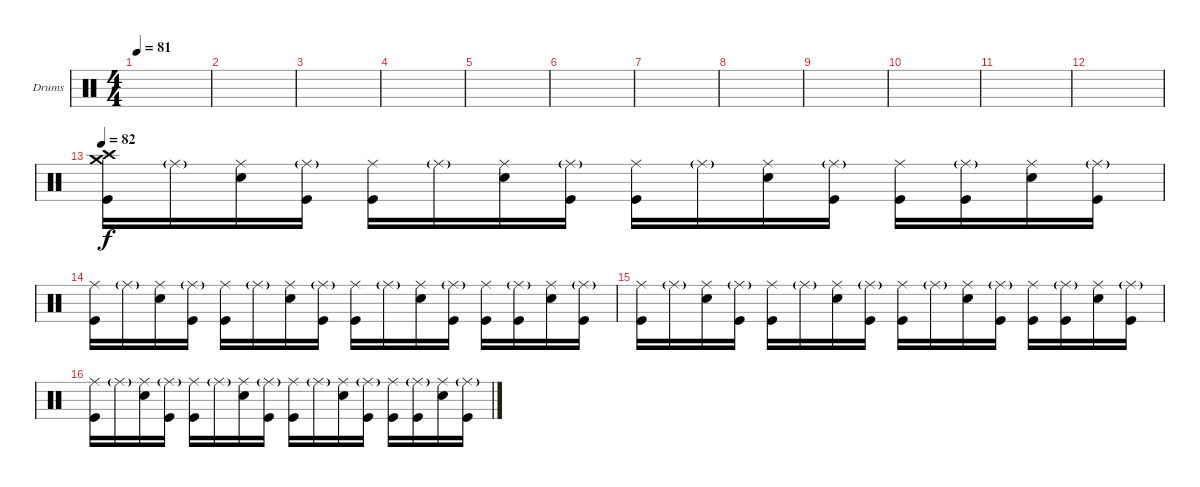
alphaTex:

\defaultSystemsLayout 4
\bracketExtendMode groupsimilarinstruments
\firstSystemTrackNameOrientation horizontal
\otherSystemsTrackNameOrientation horizontal
\track ("Drumkit" "Drums") {instrument percussion}
\staff {score}
\articulation defaults
\ts (4 4)
\tempo 81
\clef neutral
\scale
0.333333
\ks c
|
\scale
0.333333 |
\scale
0.333333 |
\scale
0.333333 |
\scale
0.333333 |
\scale
0.333333 |
\scale
0.333333 |
\scale
0.333333 |
\scale
0.333333 |
\scale
0.333333 |
\scale
0.333333 |
\scale
0.333333 |
\tempo 82
\scale
0.333333 ("Kick (hit)" "Crash medium (hit)" "Crash high (hit)").16 "Ride (middle)"{g}.16 ("Snare (hit) 2" "Ride (middle)").16 ("Kick (hit)" "Ride (middle)"{g}).16 ("Kick (hit)" "Ride (middle)").16 "Ride (middle)"{g}.16 ("Snare (hit) 2" "Ride (middle)").16 ("Kick (hit)" "Ride (middle)"{g}).16 ("Kick (hit)" "Ride (middle)").16 "Ride (middle)"{g}.16 ("Snare (hit) 2" "Ride (middle)").16 ("Kick (hit)" "Ride (middle)"{g}).16 ("Kick (hit)" "Ride (middle)").16 ("Kick (hit)" "Ride (middle)"{g}).16 ("Snare (hit) 2" "Ride (middle)").16 ("Kick (hit)" "Ride (middle)"{g}).16 |
\scale
0.333333 ("Kick (hit)" "Ride (middle)").16 "Ride (middle)"{g}.16 ("Snare (hit) 2" "Ride (middle)").16 ("Kick (hit)" "Ride (middle)"{g}).16 ("Kick (hit)" "Ride (middle)").16 "Ride (middle)"{g}.16 ("Snare (hit) 2" "Ride (middle)").16 ("Kick (hit)" "Ride (middle)"{g}).16 ("Kick (hit)" "Ride (middle)").16 "Ride (middle)"{g}.16 ("Snare (hit) 2" "Ride (middle)").16 ("Kick (hit)" "Ride (middle)"{g}).16 ("Kick (hit)" "Ride (middle)").16 ("Kick (hit)" "Ride (middle)"{g}).16 ("Snare (hit) 2" "Ride (middle)").16 ("Kick (hit)" "Ride (middle)"{g}).16 |
\scale
0.333333 ("Kick (hit)" "Ride (middle)").16 "Ride (middle)"{g}.16 ("Snare (hit) 2" "Ride (middle)").16 ("Kick (hit)" "Ride (middle)"{g}).16 ("Kick (hit)" "Ride (middle)").16 "Ride (middle)"{g}.16 ("Snare (hit) 2" "Ride (middle)").16 ("Kick (hit)" "Ride (middle)"{g}).16 ("Kick (hit)" "Ride (middle)").16 "Ride (middle)"{g}.16 ("Snare (hit) 2" "Ride (middle)").16 ("Kick (hit)" "Ride (middle)"{g}).16 ("Kick (hit)" "Ride (middle)").16 ("Kick (hit)" "Ride (middle)"{g}).16 ("Snare (hit) 2" "Ride (middle)").16 ("Kick (hit)" "Ride (middle)"{g}).16 |
\scale
0.333333 ("Kick (hit)" "Ride (middle)").16 "Ride (middle)"{g}.16 ("Snare (hit) 2" "Ride (middle)").16 ("Kick (hit)" "Ride (middle)"{g}).16 ("Kick (hit)" "Ride (middle)").16 "Ride (middle)"{g}.16 ("Snare (hit) 2" "Ride (middle)").16 ("Kick (hit)" "Ride (middle)"{g}).16 ("Kick (hit)" "Ride (middle)").16 "Ride (middle)"{g}.16 ("Snare (hit) 2" "Ride (middle)").16 ("Kick (hit)" "Ride (middle)"{g}).16 ("Kick (hit)" "Ride (middle)").16 ("Kick (hit)" "Ride (middle)"{g}).16 ("Snare (hit) 2" "Ride (middle)").16 ("Kick (hit)" "Ride (middle)"{g}).16
